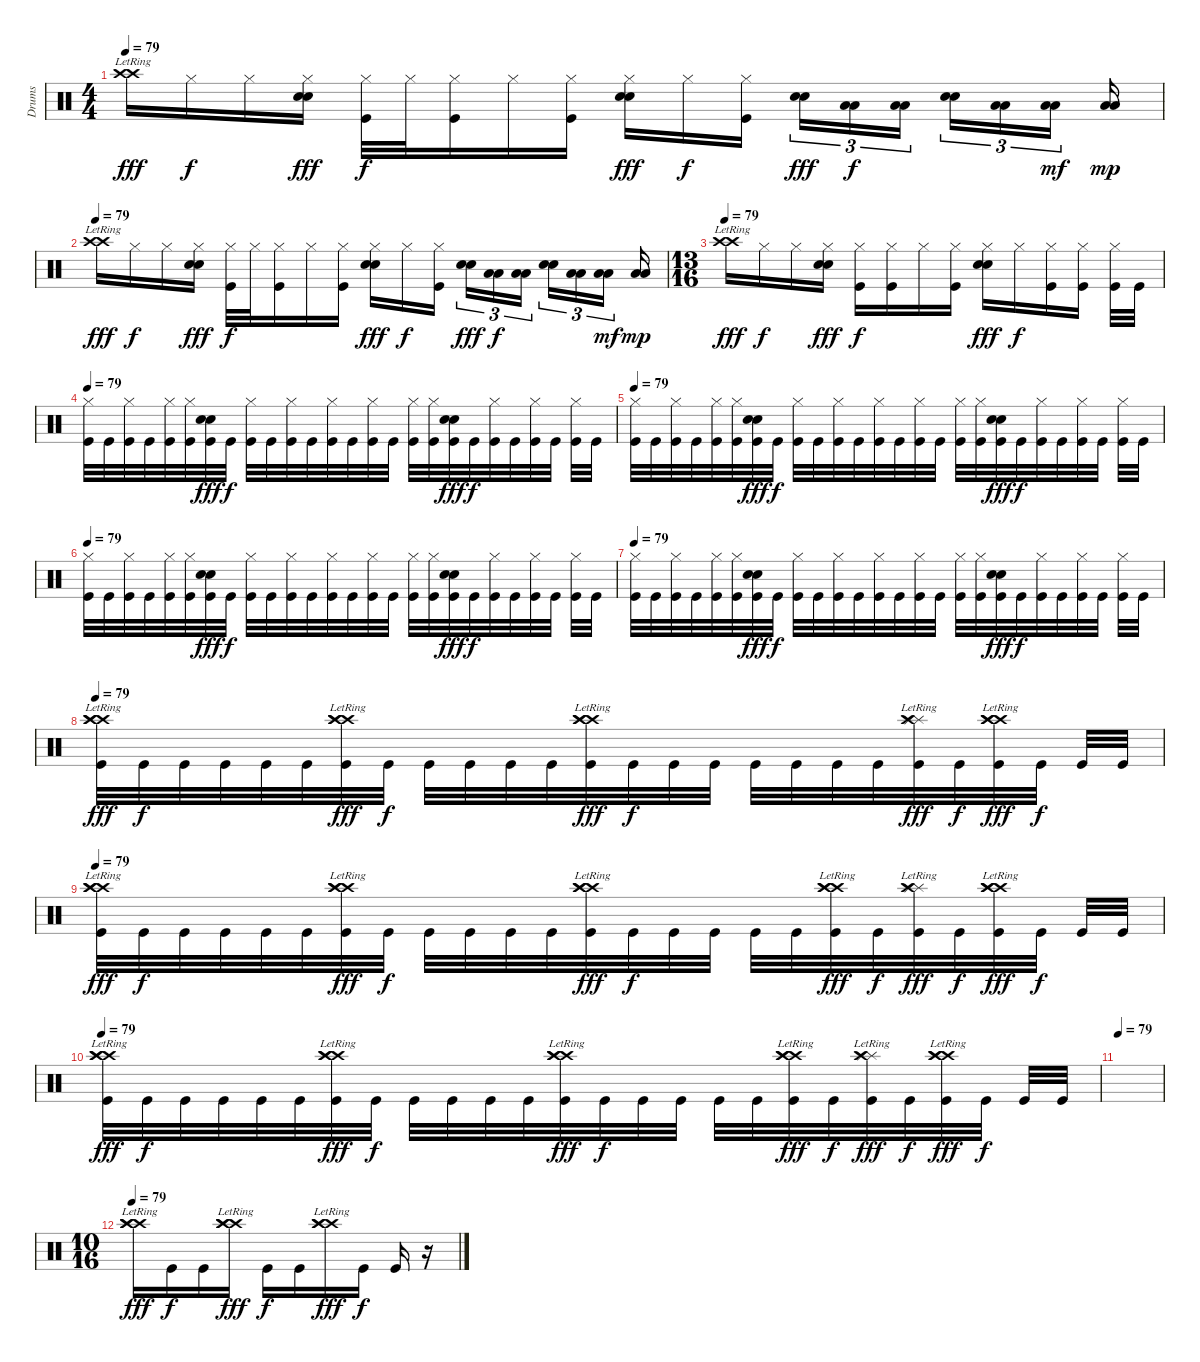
\track ("Drums" "Drums") {instrument percussion}
\staff {score}
\articulation defaults
\ts (4 4)
\tempo 79
\clef neutral
\ks c
("Crash high (hit)"{lr} "Crash high (hit)"{lr}).16{dy fff} "Hi-Hat (closed)".16{dy f} "Hi-Hat (closed)".16 ("Hi-Hat (closed)" "Electric Snare (hit)" "Electric Snare (hit)").16{dy fff} ("Hi-Hat (closed)" "Kick (hit)").32{dy f} "Hi-Hat (closed)".32 ("Hi-Hat (closed)" "Kick (hit)").16 "Hi-Hat (closed)".16 ("Hi-Hat (closed)" "Kick (hit)").16 ("Hi-Hat (closed)" "Electric Snare (hit)" "Electric Snare (hit)").16{dy fff} "Hi-Hat (closed)".16{dy f} ("Hi-Hat (closed)" "Kick (hit)").16 ("Electric Snare (hit)" "Electric Snare (hit)").16{tu (3 2) dy fff} ("Low Floor Tom (hit)" "Low Floor Tom (hit)").16{tu (3 2) dy f} ("Low Floor Tom (hit)" "Low Floor Tom (hit)").16{tu (3 2)} ("Electric Snare (hit)" "Electric Snare (hit)").16{tu (3 2)} ("Low Floor Tom (hit)" "Low Floor Tom (hit)").16{tu (3 2)} ("Low Floor Tom (hit)" "Low Floor Tom (hit)").16{tu (3 2) dy mf} ("Low Floor Tom (hit)" "Low Floor Tom (hit)").16{dy mp} |
\tempo 79
("Crash high (hit)"{lr} "Crash high (hit)"{lr}).16{dy fff} "Hi-Hat (closed)".16{dy f} "Hi-Hat (closed)".16 ("Hi-Hat (closed)" "Electric Snare (hit)" "Electric Snare (hit)").16{dy fff} ("Hi-Hat (closed)" "Kick (hit)").32{dy f} "Hi-Hat (closed)".32 ("Hi-Hat (closed)" "Kick (hit)").16 "Hi-Hat (closed)".16 ("Hi-Hat (closed)" "Kick (hit)").16 ("Hi-Hat (closed)" "Electric Snare (hit)" "Electric Snare (hit)").16{dy fff} "Hi-Hat (closed)".16{dy f} ("Hi-Hat (closed)" "Kick (hit)").16 ("Electric Snare (hit)" "Electric Snare (hit)").16{tu (3 2) dy fff} ("Low Floor Tom (hit)" "Low Floor Tom (hit)").16{tu (3 2) dy f} ("Low Floor Tom (hit)" "Low Floor Tom (hit)").16{tu (3 2)} ("Electric Snare (hit)" "Electric Snare (hit)").16{tu (3 2)} ("Low Floor Tom (hit)" "Low Floor Tom (hit)").16{tu (3 2)} ("Low Floor Tom (hit)" "Low Floor Tom (hit)").16{tu (3 2) dy mf} ("Low Floor Tom (hit)" "Low Floor Tom (hit)").16{dy mp} |
\ts (13 16)
\tempo 79
("Crash high (hit)"{lr} "Crash high (hit)"{lr}).16{dy fff} "Hi-Hat (closed)".16{dy f} "Hi-Hat (closed)".16 ("Hi-Hat (closed)" "Electric Snare (hit)" "Electric Snare (hit)").16{dy fff} ("Hi-Hat (closed)" "Kick (hit)").16{dy f} ("Hi-Hat (closed)" "Kick (hit)").16 "Hi-Hat (closed)".16 ("Hi-Hat (closed)" "Kick (hit)").16 ("Hi-Hat (closed)" "Electric Snare (hit)" "Electric Snare (hit)").16{dy fff} "Hi-Hat (closed)".16{dy f} ("Hi-Hat (closed)" "Kick (hit)").16 ("Hi-Hat (closed)" "Kick (hit)").16 ("Hi-Hat (closed)" "Kick (hit)").32 "Kick (hit)".32 |
\tempo 79
("Hi-Hat (closed)" "Kick (hit)").32 "Kick (hit)".32 ("Hi-Hat (closed)" "Kick (hit)").32 "Kick (hit)".32 ("Hi-Hat (closed)" "Kick (hit)").32 ("Hi-Hat (closed)" "Kick (hit)").32 ("Electric Snare (hit)" "Electric Snare (hit)" "Kick (hit)").32{dy fff} "Kick (hit)".32{dy f} ("Hi-Hat (closed)" "Kick (hit)").32 "Kick (hit)".32 ("Hi-Hat (closed)" "Kick (hit)").32 "Kick (hit)".32 ("Hi-Hat (closed)" "Kick (hit)").32 "Kick (hit)".32 ("Hi-Hat (closed)" "Kick (hit)").32 "Kick (hit)".32 ("Hi-Hat (closed)" "Kick (hit)").32 ("Hi-Hat (closed)" "Kick (hit)").32 ("Electric Snare (hit)" "Electric Snare (hit)" "Kick (hit)").32{dy fff} "Kick (hit)".32{dy f} ("Hi-Hat (closed)" "Kick (hit)").32 "Kick (hit)".32 ("Hi-Hat (closed)" "Kick (hit)").32 "Kick (hit)".32 ("Hi-Hat (closed)" "Kick (hit)").32 "Kick (hit)".32 |
\tempo 79
("Hi-Hat (closed)" "Kick (hit)").32 "Kick (hit)".32 ("Hi-Hat (closed)" "Kick (hit)").32 "Kick (hit)".32 ("Hi-Hat (closed)" "Kick (hit)").32 ("Hi-Hat (closed)" "Kick (hit)").32 ("Electric Snare (hit)" "Electric Snare (hit)" "Kick (hit)").32{dy fff} "Kick (hit)".32{dy f} ("Hi-Hat (closed)" "Kick (hit)").32 "Kick (hit)".32 ("Hi-Hat (closed)" "Kick (hit)").32 "Kick (hit)".32 ("Hi-Hat (closed)" "Kick (hit)").32 "Kick (hit)".32 ("Hi-Hat (closed)" "Kick (hit)").32 "Kick (hit)".32 ("Hi-Hat (closed)" "Kick (hit)").32 ("Hi-Hat (closed)" "Kick (hit)").32 ("Electric Snare (hit)" "Electric Snare (hit)" "Kick (hit)").32{dy fff} "Kick (hit)".32{dy f} ("Hi-Hat (closed)" "Kick (hit)").32 "Kick (hit)".32 ("Hi-Hat (closed)" "Kick (hit)").32 "Kick (hit)".32 ("Hi-Hat (closed)" "Kick (hit)").32 "Kick (hit)".32 |
\tempo 79
("Hi-Hat (closed)" "Kick (hit)").32 "Kick (hit)".32 ("Hi-Hat (closed)" "Kick (hit)").32 "Kick (hit)".32 ("Hi-Hat (closed)" "Kick (hit)").32 ("Hi-Hat (closed)" "Kick (hit)").32 ("Electric Snare (hit)" "Electric Snare (hit)" "Kick (hit)").32{dy fff} "Kick (hit)".32{dy f} ("Hi-Hat (closed)" "Kick (hit)").32 "Kick (hit)".32 ("Hi-Hat (closed)" "Kick (hit)").32 "Kick (hit)".32 ("Hi-Hat (closed)" "Kick (hit)").32 "Kick (hit)".32 ("Hi-Hat (closed)" "Kick (hit)").32 "Kick (hit)".32 ("Hi-Hat (closed)" "Kick (hit)").32 ("Hi-Hat (closed)" "Kick (hit)").32 ("Electric Snare (hit)" "Electric Snare (hit)" "Kick (hit)").32{dy fff} "Kick (hit)".32{dy f} ("Hi-Hat (closed)" "Kick (hit)").32 "Kick (hit)".32 ("Hi-Hat (closed)" "Kick (hit)").32 "Kick (hit)".32 ("Hi-Hat (closed)" "Kick (hit)").32 "Kick (hit)".32 |
\tempo 79
("Hi-Hat (closed)" "Kick (hit)").32 "Kick (hit)".32 ("Hi-Hat (closed)" "Kick (hit)").32 "Kick (hit)".32 ("Hi-Hat (closed)" "Kick (hit)").32 ("Hi-Hat (closed)" "Kick (hit)").32 ("Electric Snare (hit)" "Electric Snare (hit)" "Kick (hit)").32{dy fff} "Kick (hit)".32{dy f} ("Hi-Hat (closed)" "Kick (hit)").32 "Kick (hit)".32 ("Hi-Hat (closed)" "Kick (hit)").32 "Kick (hit)".32 ("Hi-Hat (closed)" "Kick (hit)").32 "Kick (hit)".32 ("Hi-Hat (closed)" "Kick (hit)").32 "Kick (hit)".32 ("Hi-Hat (closed)" "Kick (hit)").32 ("Hi-Hat (closed)" "Kick (hit)").32 ("Electric Snare (hit)" "Electric Snare (hit)" "Kick (hit)").32{dy fff} "Kick (hit)".32{dy f} ("Hi-Hat (closed)" "Kick (hit)").32 "Kick (hit)".32 ("Hi-Hat (closed)" "Kick (hit)").32 "Kick (hit)".32 ("Hi-Hat (closed)" "Kick (hit)").32 "Kick (hit)".32 |
\tempo 79
("Crash high (hit)"{lr} "Crash high (hit)"{lr} "Crash high (hit)"{lr} "Kick (hit)").32{dy fff} "Kick (hit)".32{dy f} "Kick (hit)".32 "Kick (hit)".32 "Kick (hit)".32 "Kick (hit)".32 ("Crash high (hit)"{lr} "Crash high (hit)"{lr} "Crash high (hit)"{lr} "Kick (hit)").32{dy fff} "Kick (hit)".32{dy f} "Kick (hit)".32 "Kick (hit)".32 "Kick (hit)".32 "Kick (hit)".32 ("Crash high (hit)"{lr} "Crash high (hit)"{lr} "Crash high (hit)"{lr} "Kick (hit)").32{dy fff} "Kick (hit)".32{dy f} "Kick (hit)".32 "Kick (hit)".32 "Kick (hit)".32 "Kick (hit)".32 "Kick (hit)".32 "Kick (hit)".32 ("Splash (hit)"{lr} "Splash (hit)"{lr} "Crash high (hit)"{lr} "Kick (hit)").32{dy fff} "Kick (hit)".32{dy f} ("Crash high (hit)"{lr} "Crash high (hit)"{lr} "Crash high (hit)"{lr} "Kick (hit)").32{dy fff} "Kick (hit)".32{dy f} "Kick (hit)".32 "Kick (hit)".32 |
\tempo 79
("Crash high (hit)"{lr} "Crash high (hit)"{lr} "Crash high (hit)"{lr} "Kick (hit)").32{dy fff} "Kick (hit)".32{dy f} "Kick (hit)".32 "Kick (hit)".32 "Kick (hit)".32 "Kick (hit)".32 ("Crash high (hit)"{lr} "Crash high (hit)"{lr} "Crash high (hit)"{lr} "Kick (hit)").32{dy fff} "Kick (hit)".32{dy f} "Kick (hit)".32 "Kick (hit)".32 "Kick (hit)".32 "Kick (hit)".32 ("Crash high (hit)"{lr} "Crash high (hit)"{lr} "Crash high (hit)"{lr} "Kick (hit)").32{dy fff} "Kick (hit)".32{dy f} "Kick (hit)".32 "Kick (hit)".32 "Kick (hit)".32 "Kick (hit)".32 ("Crash high (hit)"{lr} "Crash high (hit)"{lr} "Crash high (hit)"{lr} "Kick (hit)").32{dy fff} "Kick (hit)".32{dy f} ("Splash (hit)"{lr} "Splash (hit)"{lr} "Crash high (hit)"{lr} "Kick (hit)").32{dy fff} "Kick (hit)".32{dy f} ("Crash high (hit)"{lr} "Crash high (hit)"{lr} "Crash high (hit)"{lr} "Kick (hit)").32{dy fff} "Kick (hit)".32{dy f} "Kick (hit)".32 "Kick (hit)".32 |
\tempo 79
("Crash high (hit)"{lr} "Crash high (hit)"{lr} "Crash high (hit)"{lr} "Kick (hit)").32{dy fff} "Kick (hit)".32{dy f} "Kick (hit)".32 "Kick (hit)".32 "Kick (hit)".32 "Kick (hit)".32 ("Crash high (hit)"{lr} "Crash high (hit)"{lr} "Crash high (hit)"{lr} "Kick (hit)").32{dy fff} "Kick (hit)".32{dy f} "Kick (hit)".32 "Kick (hit)".32 "Kick (hit)".32 "Kick (hit)".32 ("Crash high (hit)"{lr} "Crash high (hit)"{lr} "Crash high (hit)"{lr} "Kick (hit)").32{dy fff} "Kick (hit)".32{dy f} "Kick (hit)".32 "Kick (hit)".32 "Kick (hit)".32 "Kick (hit)".32 ("Crash high (hit)"{lr} "Crash high (hit)"{lr} "Crash high (hit)"{lr} "Kick (hit)").32{dy fff} "Kick (hit)".32{dy f} ("Splash (hit)"{lr} "Splash (hit)"{lr} "Crash high (hit)"{lr} "Kick (hit)").32{dy fff} "Kick (hit)".32{dy f} ("Crash high (hit)"{lr} "Crash high (hit)"{lr} "Crash high (hit)"{lr} "Kick (hit)").32{dy fff} "Kick (hit)".32{dy f} "Kick (hit)".32 "Kick (hit)".32 |
\tempo 79
|
\ts (10 16)
\tempo 79
("Crash high (hit)"{lr} "Crash high (hit)"{lr} "Crash high (hit)"{lr}).16{dy fff} "Kick (hit)".16{dy f} "Kick (hit)".16 ("Crash high (hit)"{lr} "Crash high (hit)"{lr} "Crash high (hit)"{lr}).16{dy fff} "Kick (hit)".16{dy f} "Kick (hit)".16 ("Crash high (hit)"{lr} "Crash high (hit)"{lr} "Crash high (hit)"{lr}).16{dy fff} "Kick (hit)".16{dy f} "Kick (hit)".16 r.16
